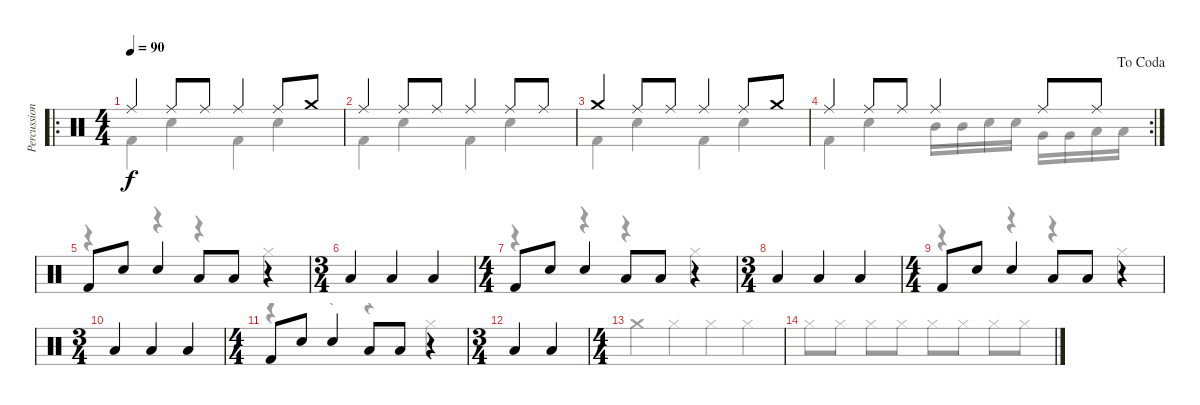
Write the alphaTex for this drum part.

\track ("Percussion" "Percussion") {instrument percussion}
\staff {score}
\articulation defaults
\voice
\ro
\ts (4 4)
\tempo 90
\clef neutral
\ks c "Ride (middle)".4{dy f} "Ride (middle)".8 "Ride (middle)".8 "Ride (middle)".4 "Ride (middle)".8 "Crash medium (hit)".8
|
"Ride (middle)".4 "Ride (middle)".8 "Ride (middle)".8 "Ride (middle)".4 "Ride (middle)".8 "Ride (middle)".8 |
"Crash medium (hit)".4 "Ride (middle)".8 "Ride (middle)".8 "Ride (middle)".4 "Ride (middle)".8 "Crash medium (hit)".8 |
\rc 2
\jump dacoda "Ride (middle)".4 "Ride (middle)".8 "Ride (middle)".8 "Ride (middle)".4 "Ride (middle)".8 "Ride (middle)".8
|
"Kick (hit) 2".8 "Snare (hit) 2".8 "Snare (hit) 2".4 "Low Tom (hit)".8 "Low Tom (hit)".8 r.4 |
\ts (3 4)
"Low Tom (hit)".4 "Low Tom (hit)".4 "Low Tom (hit)".4 |
\ts (4 4)
"Kick (hit) 2".8 "Snare (hit) 2".8 "Snare (hit) 2".4 "Low Tom (hit)".8 "Low Tom (hit)".8 r.4 |
\ts (3 4)
"Low Tom (hit)".4 "Low Tom (hit)".4 "Low Tom (hit)".4 |
\ts (4 4)
"Kick (hit) 2".8 "Snare (hit) 2".8 "Snare (hit) 2".4 "Low Tom (hit)".8 "Low Tom (hit)".8 r.4 |
\ts (3 4)
"Low Tom (hit)".4 "Low Tom (hit)".4 "Low Tom (hit)".4 |
\ts (4 4)
"Kick (hit) 2".8 "Snare (hit) 2".8 "Snare (hit) 2".4 "Low Tom (hit)".8 "Low Tom (hit)".8 r.4 |
\ts (3 4)
"Low Tom (hit)".4 "Low Tom (hit)".4 |
\ts (4 4)
|
|
|
\voice
\clef neutral
\ottava regular
\simile none
\ks c "Kick (hit) 2".4{dy f} "Snare (hit) 2".4 "Kick (hit) 2".4 "Snare (hit) 2".4
|
"Kick (hit) 2".4 "Snare (hit) 2".4 "Kick (hit) 2".4 "Snare (hit) 2".4 |
"Kick (hit) 2".4 "Snare (hit) 2".4 "Kick (hit) 2".4 "Snare (hit) 2".4 |
"Kick (hit) 2".4 "Snare (hit) 2".4 "Mid Tom (hit)".16 "Mid Tom (hit)".16 "Snare (hit) 2".16 "Snare (hit) 2".16 "Very Low Tom (hit)".16 "Very Low Tom (hit)".16 "Low Floor Tom (hit)".16 "Low Floor Tom (hit)".16 |
r.4 r.4 r.4 "Hi-Hat (closed)".4 |
|
r.4 r.4 r.4 "Hi-Hat (closed)".4 |
|
r.4 r.4 r.4 "Hi-Hat (closed)".4 |
|
r.4 r.4 r.4 "Hi-Hat (closed)".4 |
|
"Crash medium (hit)".4 "Hi-Hat (closed)".4 "Hi-Hat (closed)".4 "Hi-Hat (closed)".4 |
"Hi-Hat (closed)".8 "Hi-Hat (closed)".8 "Hi-Hat (closed)".8 "Hi-Hat (closed)".8 "Hi-Hat (closed)".8 "Hi-Hat (closed)".8 "Hi-Hat (closed)".8 "Hi-Hat (closed)".8 |
|
